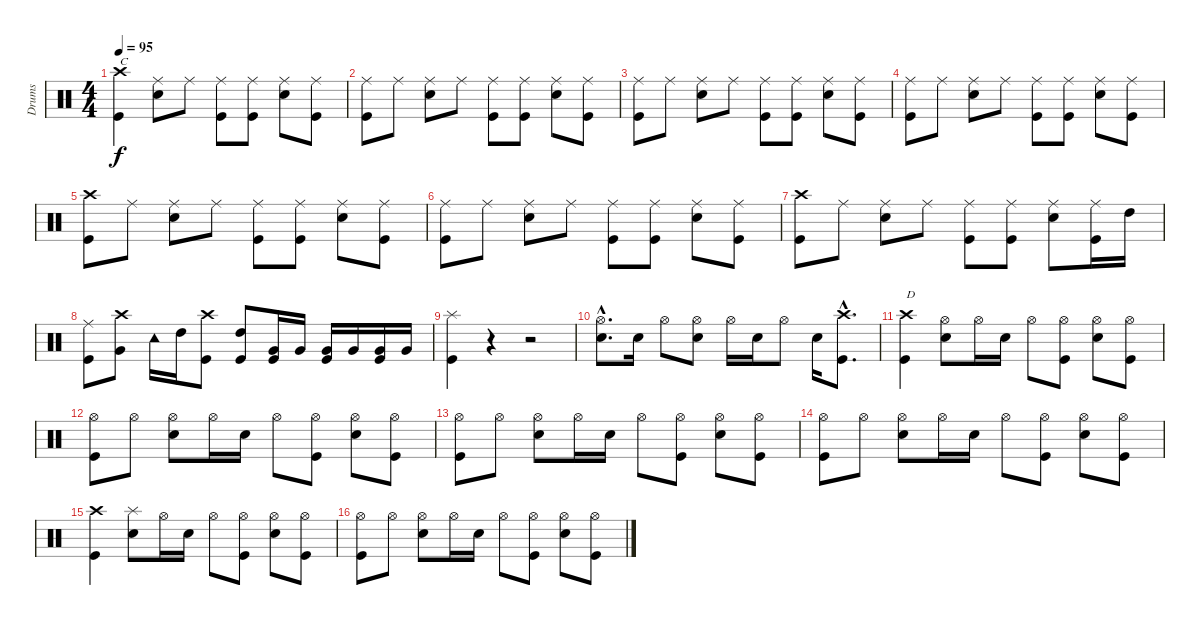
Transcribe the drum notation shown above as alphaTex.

\track ("Drums" "Drums") {instrument percussion}
\staff {score}
\articulation defaults
\ts (4 4)
\tempo 95
\clef neutral
\ks c
("Crash high (hit)" "Kick (hit)").4{txt "C" dy f} ("Ride (middle)" "Electric Snare (hit)").8 "Ride (middle)".8 ("Ride (middle)" "Kick (hit)").8 ("Ride (middle)" "Kick (hit)").8 ("Ride (middle)" "Electric Snare (hit)").8 ("Ride (middle)" "Kick (hit)").8 |
("Ride (middle)" "Kick (hit)").8 "Ride (middle)".8 ("Ride (middle)" "Electric Snare (hit)").8 "Ride (middle)".8 ("Ride (middle)" "Kick (hit)").8 ("Ride (middle)" "Kick (hit)").8 ("Ride (middle)" "Electric Snare (hit)").8 ("Ride (middle)" "Kick (hit)").8 |
("Ride (middle)" "Kick (hit)").8 "Ride (middle)".8 ("Ride (middle)" "Electric Snare (hit)").8 "Ride (middle)".8 ("Ride (middle)" "Kick (hit)").8 ("Ride (middle)" "Kick (hit)").8 ("Ride (middle)" "Electric Snare (hit)").8 ("Ride (middle)" "Kick (hit)").8 |
("Ride (middle)" "Kick (hit)").8 "Ride (middle)".8 ("Ride (middle)" "Electric Snare (hit)").8 "Ride (middle)".8 ("Ride (middle)" "Kick (hit)").8 ("Ride (middle)" "Kick (hit)").8 ("Ride (middle)" "Electric Snare (hit)").8 ("Ride (middle)" "Kick (hit)").8 |
("Crash high (hit)" "Kick (hit)").8 "Ride (middle)".8 ("Ride (middle)" "Electric Snare (hit)").8 "Ride (middle)".8 ("Ride (middle)" "Kick (hit)").8 ("Ride (middle)" "Kick (hit)").8 ("Ride (middle)" "Electric Snare (hit)").8 ("Ride (middle)" "Kick (hit)").8 |
("Ride (middle)" "Kick (hit)").8 "Ride (middle)".8 ("Ride (middle)" "Electric Snare (hit)").8 "Ride (middle)".8 ("Ride (middle)" "Kick (hit)").8 ("Ride (middle)" "Kick (hit)").8 ("Ride (middle)" "Electric Snare (hit)").8 ("Ride (middle)" "Kick (hit)").8 |
("Crash high (hit)" "Kick (hit)").8 "Ride (middle)".8 ("Ride (middle)" "Electric Snare (hit)").8 "Ride (middle)".8 ("Ride (middle)" "Kick (hit)").8 ("Ride (middle)" "Kick (hit)").8 ("Ride (middle)" "Electric Snare (hit)").8 ("Ride (middle)" "Kick (hit)").16 "High Tom (hit)".16 |
("Ride (middle)" "Kick (hit)").8 ("Crash high (hit)" "Very Low Tom (hit)").8 "Tambourine (hit)".16 "High Tom (hit)".16 ("Crash high (hit)" "Kick (hit)").8 ("High Tom (hit)" "Kick (hit)").8 ("Very Low Tom (hit)" "Kick (hit)").16 "Very Low Tom (hit)".16 ("Very Low Tom (hit)" "Kick (hit)").16 "Very Low Tom (hit)".16 ("Very Low Tom (hit)" "Kick (hit)").16 "Very Low Tom (hit)".16 |
("Splash (hit)" "Kick (hit)").4 r.4 r.2 |
("Hi-Hat (open)"{hac} "Electric Snare (hit)"{hac}).8{d} "Electric Snare (hit)".16 "Hi-Hat (open)".8 ("Hi-Hat (open)" "Electric Snare (hit)").8 "Hi-Hat (open)".16 "Electric Snare (hit)".16 "Hi-Hat (open)".8 "Electric Snare (hit)".16 ("Crash high (hit)"{hac} "Kick (hit)"{hac}).8{d} |
("Crash high (hit)" "Kick (hit)").4{txt "D"} ("Hi-Hat (open)" "Electric Snare (hit)").8 "Hi-Hat (open)".16 "Electric Snare (hit)".16 "Hi-Hat (open)".8 ("Hi-Hat (open)" "Kick (hit)").8 ("Hi-Hat (open)" "Electric Snare (hit)").8 ("Hi-Hat (open)" "Kick (hit)").8 |
("Hi-Hat (open)" "Kick (hit)").8 "Hi-Hat (open)".8 ("Hi-Hat (open)" "Electric Snare (hit)").8 "Hi-Hat (open)".16 "Electric Snare (hit)".16 "Hi-Hat (open)".8 ("Hi-Hat (open)" "Kick (hit)").8 ("Hi-Hat (open)" "Electric Snare (hit)").8 ("Hi-Hat (open)" "Kick (hit)").8 |
("Hi-Hat (open)" "Kick (hit)").8 "Hi-Hat (open)".8 ("Hi-Hat (open)" "Electric Snare (hit)").8 "Hi-Hat (open)".16 "Electric Snare (hit)".16 "Hi-Hat (open)".8 ("Hi-Hat (open)" "Kick (hit)").8 ("Hi-Hat (open)" "Electric Snare (hit)").8 ("Hi-Hat (open)" "Kick (hit)").8 |
("Hi-Hat (open)" "Kick (hit)").8 "Hi-Hat (open)".8 ("Hi-Hat (open)" "Electric Snare (hit)").8 "Hi-Hat (open)".16 "Electric Snare (hit)".16 "Hi-Hat (open)".8 ("Hi-Hat (open)" "Kick (hit)").8 ("Hi-Hat (open)" "Electric Snare (hit)").8 ("Hi-Hat (open)" "Kick (hit)").8 |
("Crash high (hit)" "Kick (hit)").4 ("Splash (hit)" "Electric Snare (hit)").8 "Hi-Hat (open)".16 "Electric Snare (hit)".16 "Hi-Hat (open)".8 ("Hi-Hat (open)" "Kick (hit)").8 ("Hi-Hat (open)" "Electric Snare (hit)").8 ("Hi-Hat (open)" "Kick (hit)").8 |
("Hi-Hat (open)" "Kick (hit)").8 "Hi-Hat (open)".8 ("Hi-Hat (open)" "Electric Snare (hit)").8 "Hi-Hat (open)".16 "Electric Snare (hit)".16 "Hi-Hat (open)".8 ("Hi-Hat (open)" "Kick (hit)").8 ("Hi-Hat (open)" "Electric Snare (hit)").8 ("Hi-Hat (open)" "Kick (hit)").8
